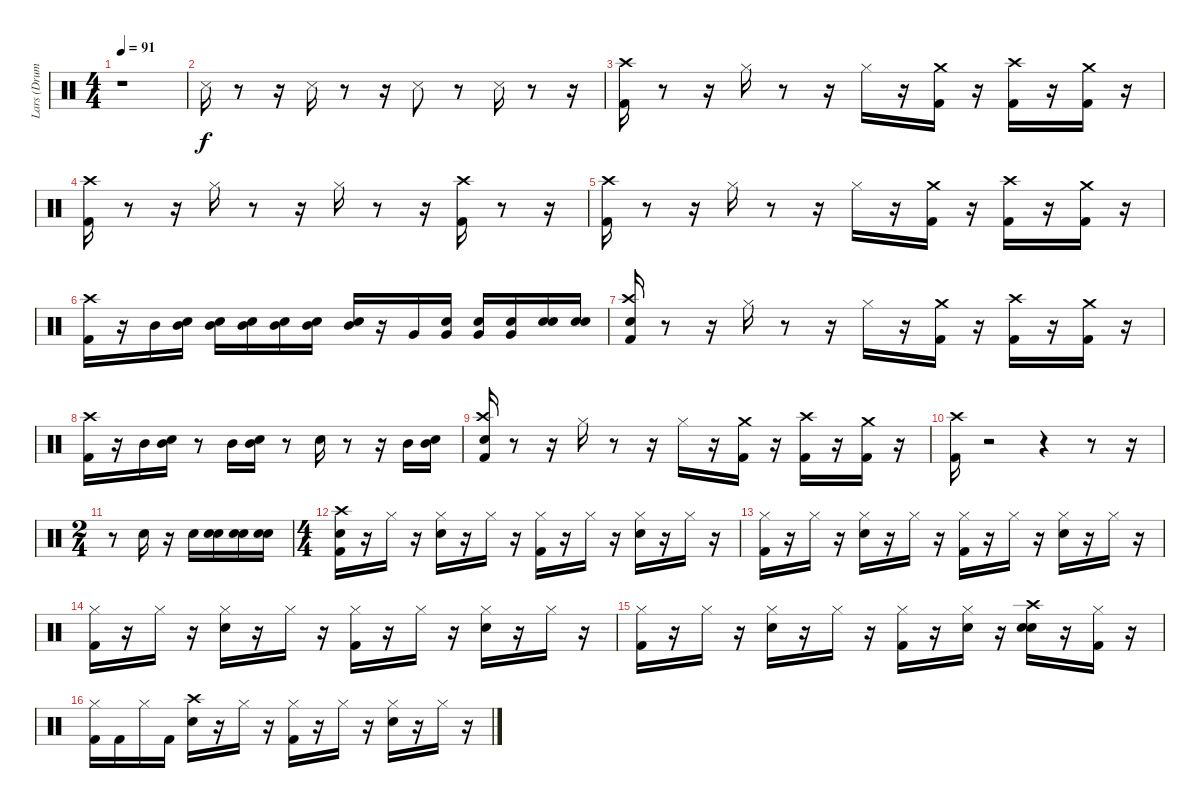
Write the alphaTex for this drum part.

\track ("Lars (Drums)" "Lars (Drum") {instrument percussion}
\staff {score}
\articulation defaults
\ts (4 4)
\tempo 91
\clef neutral
\ks c
r.1{dy f} |
"Snare (side stick) 3".16 r.8 r.16 "Snare (side stick) 3".16 r.8 r.16 "Snare (side stick) 3".8 r.8 "Snare (side stick) 3".16 r.8 r.16 |
("Kick (hit) 2" "Crash high (hit)").16 r.8 r.16 "Hi-Hat (closed)".16 r.8 r.16 "Hi-Hat (closed)".16 r.16 ("Kick (hit) 2" "Crash medium (hit)").16 r.16 ("Kick (hit) 2" "Crash high (hit)").16 r.16 ("Kick (hit) 2" "Crash medium (hit)").16 r.16 |
("Kick (hit) 2" "Crash high (hit)").16 r.8 r.16 "Hi-Hat (closed)".16 r.8 r.16 "Hi-Hat (closed)".16 r.8 r.16 ("Kick (hit) 2" "Crash high (hit)").16 r.8 r.16 |
("Kick (hit) 2" "Crash high (hit)").16 r.8 r.16 "Hi-Hat (closed)".16 r.8 r.16 "Hi-Hat (closed)".16 r.16 ("Kick (hit) 2" "Crash medium (hit)").16 r.16 ("Kick (hit) 2" "Crash high (hit)").16 r.16 ("Kick (hit) 2" "Crash medium (hit)").16 r.16 |
("Kick (hit) 2" "Crash high (hit)").16 r.16 "Mid Tom (hit)".16 ("Snare (hit)" "Mid Tom (hit)").16 ("Snare (hit)" "Mid Tom (hit)").16 ("Snare (hit)" "Mid Tom (hit)").16 ("Snare (hit)" "Mid Tom (hit)").16 ("Snare (hit)" "Mid Tom (hit)").16 ("Snare (hit)" "Mid Tom (hit)").16 r.16 "Very Low Tom (hit)".16 ("Snare (hit)" "Very Low Tom (hit)").16 ("Snare (hit)" "Very Low Tom (hit)").16 ("Snare (hit)" "Very Low Tom (hit)").16 ("Snare (hit)" "Snare (hit) 2").16 ("Snare (hit)" "Snare (hit) 2").16 |
("Snare (hit)" "Kick (hit) 2" "Crash high (hit)").16 r.8 r.16 "Hi-Hat (closed)".16 r.8 r.16 "Hi-Hat (closed)".16 r.16 ("Kick (hit) 2" "Crash medium (hit)").16 r.16 ("Kick (hit) 2" "Crash high (hit)").16 r.16 ("Kick (hit) 2" "Crash medium (hit)").16 r.16 |
("Kick (hit) 2" "Crash high (hit)").16 r.16 "Mid Tom (hit)".16 ("Snare (hit)" "Mid Tom (hit)").16 r.8 "Mid Tom (hit)".16 ("Snare (hit)" "Mid Tom (hit)").16 r.8 "Snare (hit) 2".16 r.8 r.16 "Mid Tom (hit)".16 ("Snare (hit)" "Mid Tom (hit)").16 |
("Snare (hit)" "Kick (hit) 2" "Crash high (hit)").16 r.8 r.16 "Hi-Hat (closed)".16 r.8 r.16 "Hi-Hat (closed)".16 r.16 ("Kick (hit) 2" "Crash medium (hit)").16 r.16 ("Kick (hit) 2" "Crash high (hit)").16 r.16 ("Kick (hit) 2" "Crash medium (hit)").16 r.16 |
("Kick (hit) 2" "Crash high (hit)").16 r.2 r.4 r.8 r.16 |
\ts (2 4)
r.8 "Snare (hit) 2".16 r.16 "Snare (hit) 2".16 ("Snare (hit)" "Snare (hit) 2").16 ("Snare (hit)" "Snare (hit) 2").16 ("Snare (hit)" "Snare (hit) 2").16 |
\ts (4 4)
("Snare (hit)" "Kick (hit) 2" "Crash high (hit)").16 r.16 "Hi-Hat (closed)".16 r.16 ("Snare (hit) 2" "Hi-Hat (closed)").16 r.16 "Hi-Hat (closed)".16 r.16 ("Kick (hit) 2" "Hi-Hat (closed)").16 r.16 "Hi-Hat (closed)".16 r.16 ("Snare (hit) 2" "Hi-Hat (closed)").16 r.16 "Hi-Hat (closed)".16 r.16 |
("Kick (hit) 2" "Hi-Hat (closed)").16 r.16 "Hi-Hat (closed)".16 r.16 ("Snare (hit) 2" "Hi-Hat (closed)").16 r.16 "Hi-Hat (closed)".16 r.16 ("Kick (hit) 2" "Hi-Hat (closed)").16 r.16 "Hi-Hat (closed)".16 r.16 ("Snare (hit) 2" "Hi-Hat (closed)").16 r.16 "Hi-Hat (closed)".16 r.16 |
("Kick (hit) 2" "Hi-Hat (closed)").16 r.16 "Hi-Hat (closed)".16 r.16 ("Snare (hit) 2" "Hi-Hat (closed)").16 r.16 "Hi-Hat (closed)".16 r.16 ("Kick (hit) 2" "Hi-Hat (closed)").16 r.16 "Hi-Hat (closed)".16 r.16 ("Snare (hit) 2" "Hi-Hat (closed)").16 r.16 "Hi-Hat (closed)".16 r.16 |
("Kick (hit) 2" "Hi-Hat (closed)").16 r.16 "Hi-Hat (closed)".16 r.16 ("Snare (hit) 2" "Hi-Hat (closed)").16 r.16 "Hi-Hat (closed)".16 r.16 ("Kick (hit) 2" "Hi-Hat (closed)").16 r.16 ("Snare (hit)" "Hi-Hat (closed)").16 r.16 ("Snare (hit)" "Snare (hit) 2" "Crash high (hit)").16 r.16 ("Kick (hit) 2" "Hi-Hat (closed)").16 r.16 |
("Kick (hit) 2" "Hi-Hat (closed)").16 "Kick (hit) 2".16 "Hi-Hat (closed)".16 "Kick (hit) 2".16 ("Snare (hit) 2" "Crash high (hit)").16 r.16 "Hi-Hat (closed)".16 r.16 ("Kick (hit) 2" "Hi-Hat (closed)").16 r.16 "Hi-Hat (closed)".16 r.16 ("Snare (hit) 2" "Hi-Hat (closed)").16 r.16 "Hi-Hat (closed)".16 r.16
